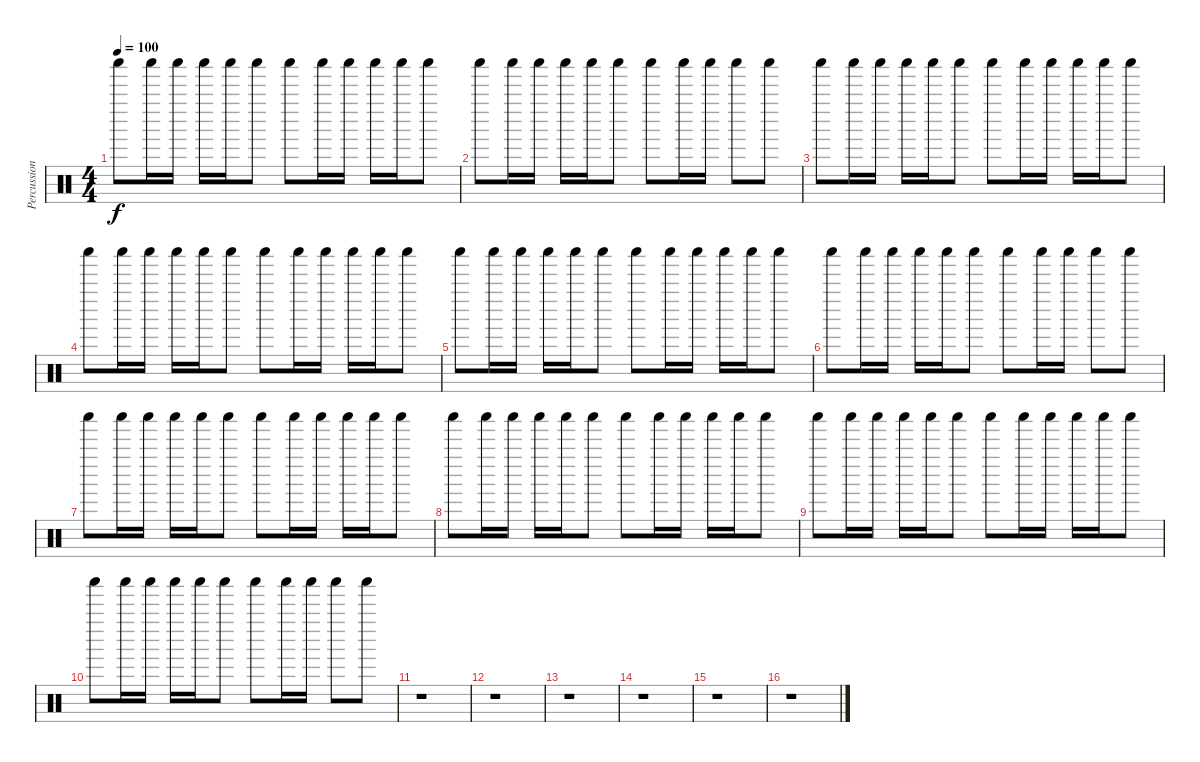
\track ("Percussion" "Percussion") {instrument percussion}
\staff {score}
\articulation defaults
\ts (4 4)
\tempo 100
\clef neutral
\ks c "Shaker (hit)".8{dy f} "Shaker (hit)".16 "Shaker (hit)".16 "Shaker (hit)".16 "Shaker (hit)".16 "Shaker (hit)".8 "Shaker (hit)".8 "Shaker (hit)".16 "Shaker (hit)".16 "Shaker (hit)".16 "Shaker (hit)".16 "Shaker (hit)".8
|
"Shaker (hit)".8 "Shaker (hit)".16 "Shaker (hit)".16 "Shaker (hit)".16 "Shaker (hit)".16 "Shaker (hit)".8 "Shaker (hit)".8 "Shaker (hit)".16 "Shaker (hit)".16 "Shaker (hit)".8 "Shaker (hit)".8 |
"Shaker (hit)".8 "Shaker (hit)".16 "Shaker (hit)".16 "Shaker (hit)".16 "Shaker (hit)".16 "Shaker (hit)".8 "Shaker (hit)".8 "Shaker (hit)".16 "Shaker (hit)".16 "Shaker (hit)".16 "Shaker (hit)".16 "Shaker (hit)".8 |
"Shaker (hit)".8 "Shaker (hit)".16 "Shaker (hit)".16 "Shaker (hit)".16 "Shaker (hit)".16 "Shaker (hit)".8 "Shaker (hit)".8 "Shaker (hit)".16 "Shaker (hit)".16 "Shaker (hit)".16 "Shaker (hit)".16 "Shaker (hit)".8 |
"Shaker (hit)".8 "Shaker (hit)".16 "Shaker (hit)".16 "Shaker (hit)".16 "Shaker (hit)".16 "Shaker (hit)".8 "Shaker (hit)".8 "Shaker (hit)".16 "Shaker (hit)".16 "Shaker (hit)".16 "Shaker (hit)".16 "Shaker (hit)".8 |
"Shaker (hit)".8 "Shaker (hit)".16 "Shaker (hit)".16 "Shaker (hit)".16 "Shaker (hit)".16 "Shaker (hit)".8 "Shaker (hit)".8 "Shaker (hit)".16 "Shaker (hit)".16 "Shaker (hit)".8 "Shaker (hit)".8 |
"Shaker (hit)".8 "Shaker (hit)".16 "Shaker (hit)".16 "Shaker (hit)".16 "Shaker (hit)".16 "Shaker (hit)".8 "Shaker (hit)".8 "Shaker (hit)".16 "Shaker (hit)".16 "Shaker (hit)".16 "Shaker (hit)".16 "Shaker (hit)".8 |
"Shaker (hit)".8 "Shaker (hit)".16 "Shaker (hit)".16 "Shaker (hit)".16 "Shaker (hit)".16 "Shaker (hit)".8 "Shaker (hit)".8 "Shaker (hit)".16 "Shaker (hit)".16 "Shaker (hit)".16 "Shaker (hit)".16 "Shaker (hit)".8 |
"Shaker (hit)".8 "Shaker (hit)".16 "Shaker (hit)".16 "Shaker (hit)".16 "Shaker (hit)".16 "Shaker (hit)".8 "Shaker (hit)".8 "Shaker (hit)".16 "Shaker (hit)".16 "Shaker (hit)".16 "Shaker (hit)".16 "Shaker (hit)".8 |
"Shaker (hit)".8 "Shaker (hit)".16 "Shaker (hit)".16 "Shaker (hit)".16 "Shaker (hit)".16 "Shaker (hit)".8 "Shaker (hit)".8 "Shaker (hit)".16 "Shaker (hit)".16 "Shaker (hit)".8 "Shaker (hit)".8 |
r.1 |
r.1 |
r.1 |
r.1 |
r.1 |
r.1
